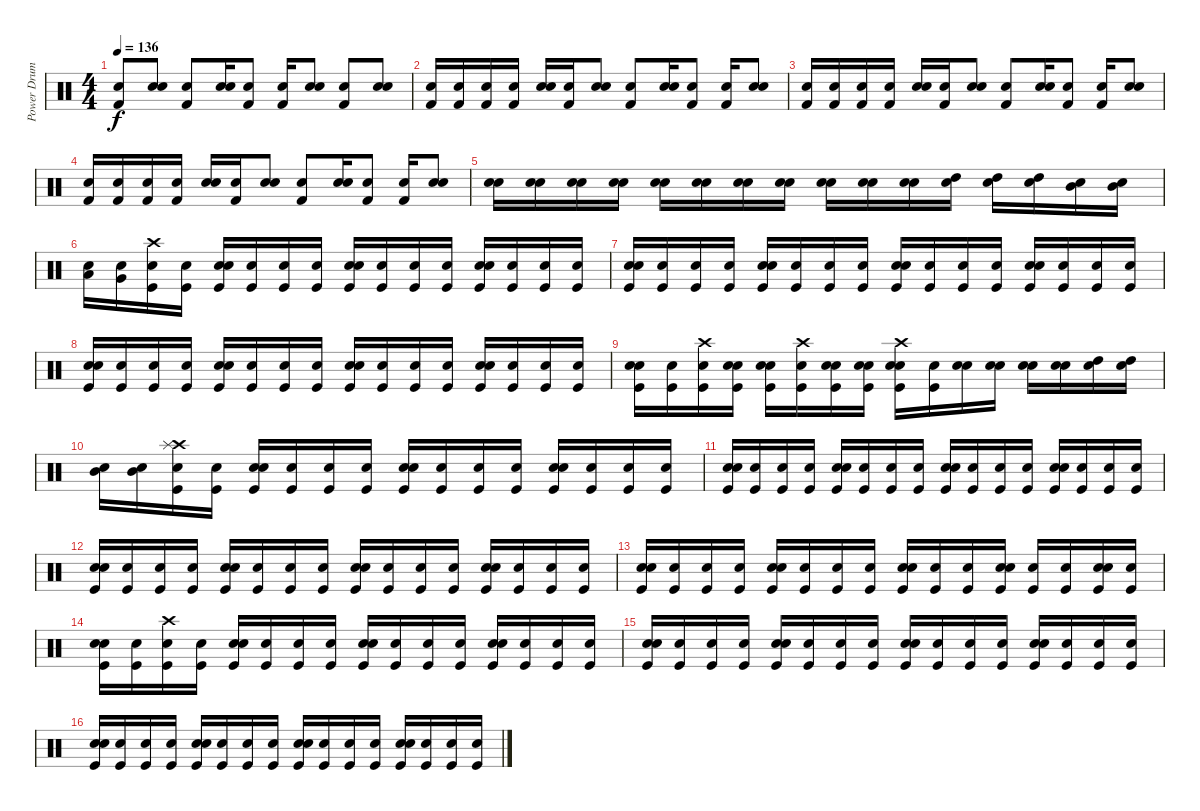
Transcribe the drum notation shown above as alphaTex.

\track ("Power Drums" "Power Drum") {instrument percussion}
\staff {score}
\articulation defaults
\ts (4 4)
\tempo 136
\clef neutral
\ks c
("Snare (hit)" "Kick (hit) 2").8{dy f} ("Snare (hit)" "Snare (hit) 2").8 ("Snare (hit)" "Kick (hit) 2").8 ("Snare (hit)" "Snare (hit) 2").16 ("Snare (hit)" "Kick (hit) 2").8 ("Snare (hit)" "Kick (hit) 2").16 ("Snare (hit)" "Snare (hit) 2").8 ("Snare (hit)" "Kick (hit) 2").8 ("Snare (hit)" "Snare (hit) 2").8 |
("Snare (hit)" "Kick (hit) 2").16 ("Snare (hit)" "Kick (hit) 2").16 ("Snare (hit)" "Kick (hit) 2").16 ("Snare (hit)" "Kick (hit) 2").16 ("Snare (hit)" "Snare (hit) 2").16 ("Snare (hit)" "Kick (hit) 2").16 ("Snare (hit)" "Snare (hit) 2").8 ("Snare (hit)" "Kick (hit) 2").8 ("Snare (hit)" "Snare (hit) 2").16 ("Snare (hit)" "Kick (hit) 2").8 ("Snare (hit)" "Kick (hit) 2").16 ("Snare (hit)" "Snare (hit) 2").8 |
("Snare (hit)" "Kick (hit) 2").16 ("Snare (hit)" "Kick (hit) 2").16 ("Snare (hit)" "Kick (hit) 2").16 ("Snare (hit)" "Kick (hit) 2").16 ("Snare (hit)" "Snare (hit) 2").16 ("Snare (hit)" "Kick (hit) 2").16 ("Snare (hit)" "Snare (hit) 2").8 ("Snare (hit)" "Kick (hit) 2").8 ("Snare (hit)" "Snare (hit) 2").16 ("Snare (hit)" "Kick (hit) 2").8 ("Snare (hit)" "Kick (hit) 2").16 ("Snare (hit)" "Snare (hit) 2").8 |
("Snare (hit)" "Kick (hit) 2").16 ("Snare (hit)" "Kick (hit) 2").16 ("Snare (hit)" "Kick (hit) 2").16 ("Snare (hit)" "Kick (hit) 2").16 ("Snare (hit)" "Snare (hit) 2").16 ("Snare (hit)" "Kick (hit) 2").16 ("Snare (hit)" "Snare (hit) 2").8 ("Snare (hit)" "Kick (hit) 2").8 ("Snare (hit)" "Snare (hit) 2").16 ("Snare (hit)" "Kick (hit) 2").8 ("Snare (hit)" "Kick (hit) 2").16 ("Snare (hit)" "Snare (hit) 2").8 |
("Snare (hit)" "Snare (hit) 2").16 ("Snare (hit)" "Snare (hit) 2").16 ("Snare (hit)" "Snare (hit) 2").16 ("Snare (hit)" "Snare (hit) 2").16 ("Snare (hit)" "Snare (hit) 2").16 ("Snare (hit)" "Snare (hit) 2").16 ("Snare (hit)" "Snare (hit) 2").16 ("Snare (hit)" "Snare (hit) 2").16 ("Snare (hit)" "Snare (hit) 2").16 ("Snare (hit)" "Snare (hit) 2").16 ("Snare (hit)" "Snare (hit) 2").16 ("Snare (hit)" "High Tom (hit)").16 ("Snare (hit)" "High Tom (hit)").16 ("Snare (hit)" "High Tom (hit)").16 ("Snare (hit)" "Mid Tom (hit)").16 ("Snare (hit)" "Mid Tom (hit)").16 |
("Snare (hit)" "Low Tom (hit)").16 ("Snare (hit)" "Very Low Tom (hit)").16 ("Snare (hit)" "Kick (hit)" "Crash high (hit)").16 ("Snare (hit)" "Kick (hit)").16 ("Snare (hit)" "Kick (hit)" "Snare (hit) 2").16 ("Snare (hit)" "Kick (hit)").16 ("Snare (hit)" "Kick (hit)").16 ("Snare (hit)" "Kick (hit)").16 ("Snare (hit)" "Kick (hit)" "Snare (hit) 2").16 ("Snare (hit)" "Kick (hit)").16 ("Snare (hit)" "Kick (hit)").16 ("Snare (hit)" "Kick (hit)").16 ("Snare (hit)" "Kick (hit)" "Snare (hit) 2").16 ("Snare (hit)" "Kick (hit)").16 ("Snare (hit)" "Kick (hit)").16 ("Snare (hit)" "Kick (hit)").16 |
("Snare (hit)" "Kick (hit)" "Snare (hit) 2").16 ("Snare (hit)" "Kick (hit)").16 ("Snare (hit)" "Kick (hit)").16 ("Snare (hit)" "Kick (hit)").16 ("Snare (hit)" "Kick (hit)" "Snare (hit) 2").16 ("Snare (hit)" "Kick (hit)").16 ("Snare (hit)" "Kick (hit)").16 ("Snare (hit)" "Kick (hit)").16 ("Snare (hit)" "Kick (hit)" "Snare (hit) 2").16 ("Snare (hit)" "Kick (hit)").16 ("Snare (hit)" "Kick (hit)").16 ("Snare (hit)" "Kick (hit)").16 ("Snare (hit)" "Kick (hit)" "Snare (hit) 2").16 ("Snare (hit)" "Kick (hit)").16 ("Snare (hit)" "Kick (hit)").16 ("Snare (hit)" "Kick (hit)").16 |
("Snare (hit)" "Kick (hit)" "Snare (hit) 2").16 ("Snare (hit)" "Kick (hit)").16 ("Snare (hit)" "Kick (hit)").16 ("Snare (hit)" "Kick (hit)").16 ("Snare (hit)" "Kick (hit)" "Snare (hit) 2").16 ("Snare (hit)" "Kick (hit)").16 ("Snare (hit)" "Kick (hit)").16 ("Snare (hit)" "Kick (hit)").16 ("Snare (hit)" "Kick (hit)" "Snare (hit) 2").16 ("Snare (hit)" "Kick (hit)").16 ("Snare (hit)" "Kick (hit)").16 ("Snare (hit)" "Kick (hit)").16 ("Snare (hit)" "Kick (hit)" "Snare (hit) 2").16 ("Snare (hit)" "Kick (hit)").16 ("Snare (hit)" "Kick (hit)").16 ("Snare (hit)" "Kick (hit)").16 |
("Snare (hit)" "Kick (hit)" "Snare (hit) 2").16 ("Snare (hit)" "Kick (hit)").16 ("Snare (hit)" "Kick (hit)" "Crash high (hit)").16 ("Snare (hit)" "Kick (hit)" "Snare (hit) 2").16 ("Snare (hit)" "Kick (hit)" "Snare (hit) 2").16 ("Snare (hit)" "Kick (hit)" "Crash high (hit)").16 ("Snare (hit)" "Kick (hit)" "Snare (hit) 2").16 ("Snare (hit)" "Kick (hit)" "Snare (hit) 2").16 ("Snare (hit)" "Kick (hit)" "Snare (hit) 2" "Crash high (hit)").16 ("Snare (hit)" "Kick (hit)").16 ("Snare (hit)" "Snare (hit) 2").16 ("Snare (hit)" "Snare (hit) 2").16 ("Snare (hit)" "Snare (hit) 2").16 ("Snare (hit)" "Snare (hit) 2").16 ("Snare (hit)" "High Tom (hit)").16 ("Snare (hit)" "High Tom (hit)").16 |
("Snare (hit)" "Mid Tom (hit)").16 ("Snare (hit)" "Mid Tom (hit)").16 ("Snare (hit)" "Kick (hit)" "Crash high (hit)" "Splash (hit)").16 ("Snare (hit)" "Kick (hit)").16 ("Snare (hit)" "Kick (hit)" "Snare (hit) 2").16 ("Snare (hit)" "Kick (hit)").16 ("Snare (hit)" "Kick (hit)").16 ("Snare (hit)" "Kick (hit)").16 ("Snare (hit)" "Kick (hit)" "Snare (hit) 2").16 ("Snare (hit)" "Kick (hit)").16 ("Snare (hit)" "Kick (hit)").16 ("Snare (hit)" "Kick (hit)").16 ("Snare (hit)" "Kick (hit)" "Snare (hit) 2").16 ("Snare (hit)" "Kick (hit)").16 ("Snare (hit)" "Kick (hit)").16 ("Snare (hit)" "Kick (hit)").16 |
("Snare (hit)" "Kick (hit)" "Snare (hit) 2").16 ("Snare (hit)" "Kick (hit)").16 ("Snare (hit)" "Kick (hit)").16 ("Snare (hit)" "Kick (hit)").16 ("Snare (hit)" "Kick (hit)" "Snare (hit) 2").16 ("Snare (hit)" "Kick (hit)").16 ("Snare (hit)" "Kick (hit)").16 ("Snare (hit)" "Kick (hit)").16 ("Snare (hit)" "Kick (hit)" "Snare (hit) 2").16 ("Snare (hit)" "Kick (hit)").16 ("Snare (hit)" "Kick (hit)").16 ("Snare (hit)" "Kick (hit)").16 ("Snare (hit)" "Kick (hit)" "Snare (hit) 2").16 ("Snare (hit)" "Kick (hit)").16 ("Snare (hit)" "Kick (hit)").16 ("Snare (hit)" "Kick (hit)").16 |
("Snare (hit)" "Kick (hit)" "Snare (hit) 2").16 ("Snare (hit)" "Kick (hit)").16 ("Snare (hit)" "Kick (hit)").16 ("Snare (hit)" "Kick (hit)").16 ("Snare (hit)" "Kick (hit)" "Snare (hit) 2").16 ("Snare (hit)" "Kick (hit)").16 ("Snare (hit)" "Kick (hit)").16 ("Snare (hit)" "Kick (hit)").16 ("Snare (hit)" "Kick (hit)" "Snare (hit) 2").16 ("Snare (hit)" "Kick (hit)").16 ("Snare (hit)" "Kick (hit)").16 ("Snare (hit)" "Kick (hit)").16 ("Snare (hit)" "Kick (hit)" "Snare (hit) 2").16 ("Snare (hit)" "Kick (hit)").16 ("Snare (hit)" "Kick (hit)").16 ("Snare (hit)" "Kick (hit)").16 |
("Snare (hit)" "Kick (hit)" "Snare (hit) 2").16 ("Snare (hit)" "Kick (hit)").16 ("Snare (hit)" "Kick (hit)").16 ("Snare (hit)" "Kick (hit)").16 ("Snare (hit)" "Kick (hit)" "Snare (hit) 2").16 ("Snare (hit)" "Kick (hit)").16 ("Snare (hit)" "Kick (hit)").16 ("Snare (hit)" "Kick (hit)").16 ("Snare (hit)" "Kick (hit)" "Snare (hit) 2").16 ("Snare (hit)" "Kick (hit)").16 ("Snare (hit)" "Kick (hit)").16 ("Snare (hit)" "Kick (hit)" "Snare (hit) 2").16 ("Snare (hit)" "Kick (hit)").16 ("Snare (hit)" "Kick (hit)").16 ("Snare (hit)" "Kick (hit)" "Snare (hit) 2").16 ("Snare (hit)" "Kick (hit)").16 |
("Snare (hit)" "Kick (hit)" "Snare (hit) 2").16 ("Snare (hit)" "Kick (hit)").16 ("Snare (hit)" "Kick (hit)" "Crash high (hit)").16 ("Snare (hit)" "Kick (hit)").16 ("Snare (hit)" "Kick (hit)" "Snare (hit) 2").16 ("Snare (hit)" "Kick (hit)").16 ("Snare (hit)" "Kick (hit)").16 ("Snare (hit)" "Kick (hit)").16 ("Snare (hit)" "Kick (hit)" "Snare (hit) 2").16 ("Snare (hit)" "Kick (hit)").16 ("Snare (hit)" "Kick (hit)").16 ("Snare (hit)" "Kick (hit)").16 ("Snare (hit)" "Kick (hit)" "Snare (hit) 2").16 ("Snare (hit)" "Kick (hit)").16 ("Snare (hit)" "Kick (hit)").16 ("Snare (hit)" "Kick (hit)").16 |
("Snare (hit)" "Kick (hit)" "Snare (hit) 2").16 ("Snare (hit)" "Kick (hit)").16 ("Snare (hit)" "Kick (hit)").16 ("Snare (hit)" "Kick (hit)").16 ("Snare (hit)" "Kick (hit)" "Snare (hit) 2").16 ("Snare (hit)" "Kick (hit)").16 ("Snare (hit)" "Kick (hit)").16 ("Snare (hit)" "Kick (hit)").16 ("Snare (hit)" "Kick (hit)" "Snare (hit) 2").16 ("Snare (hit)" "Kick (hit)").16 ("Snare (hit)" "Kick (hit)").16 ("Snare (hit)" "Kick (hit)").16 ("Snare (hit)" "Kick (hit)" "Snare (hit) 2").16 ("Snare (hit)" "Kick (hit)").16 ("Snare (hit)" "Kick (hit)").16 ("Snare (hit)" "Kick (hit)").16 |
("Snare (hit)" "Kick (hit)" "Snare (hit) 2").16 ("Snare (hit)" "Kick (hit)").16 ("Snare (hit)" "Kick (hit)").16 ("Snare (hit)" "Kick (hit)").16 ("Snare (hit)" "Kick (hit)" "Snare (hit) 2").16 ("Snare (hit)" "Kick (hit)").16 ("Snare (hit)" "Kick (hit)").16 ("Snare (hit)" "Kick (hit)").16 ("Snare (hit)" "Kick (hit)" "Snare (hit) 2").16 ("Snare (hit)" "Kick (hit)").16 ("Snare (hit)" "Kick (hit)").16 ("Snare (hit)" "Kick (hit)").16 ("Snare (hit)" "Kick (hit)" "Snare (hit) 2").16 ("Snare (hit)" "Kick (hit)").16 ("Snare (hit)" "Kick (hit)").16 ("Snare (hit)" "Kick (hit)").16
